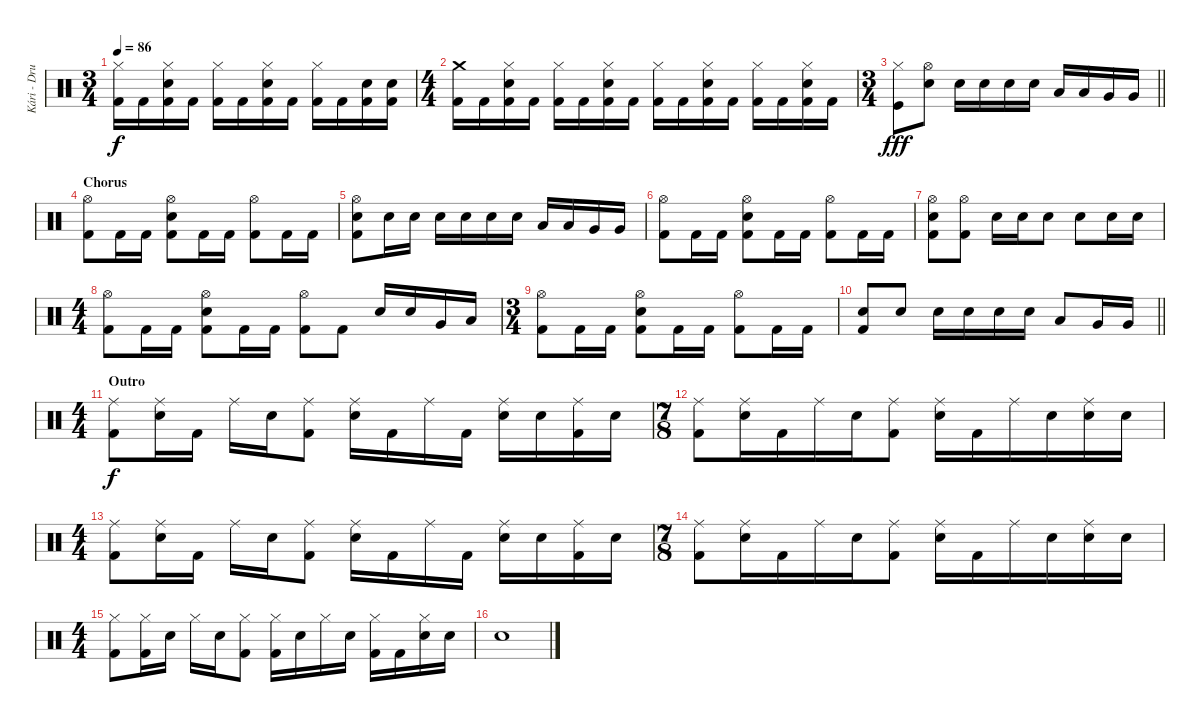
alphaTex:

\track ("Kári - Drums" "Kári - Dru") {instrument percussion}
\staff {score}
\articulation defaults
\ts (3 4)
\tempo 86
\clef neutral
\ks c
("Hi-Hat (closed)" "Kick (hit) 2").16{dy f} "Kick (hit) 2".16 ("Hi-Hat (closed)" "Electric Snare (hit)" "Kick (hit) 2").16 "Kick (hit) 2".16 ("Hi-Hat (closed)" "Kick (hit) 2").16 "Kick (hit) 2".16 ("Hi-Hat (closed)" "Electric Snare (hit)" "Kick (hit) 2").16 "Kick (hit) 2".16 ("Hi-Hat (closed)" "Kick (hit) 2").16 "Kick (hit) 2".16 ("Electric Snare (hit)" "Kick (hit) 2").16 ("Electric Snare (hit)" "Kick (hit) 2").16 |
\ts (4 4)
("Crash medium (hit)" "Kick (hit) 2").16 "Kick (hit) 2".16 ("Hi-Hat (closed)" "Electric Snare (hit)" "Kick (hit) 2").16 "Kick (hit) 2".16 ("Hi-Hat (closed)" "Kick (hit) 2").16 "Kick (hit) 2".16 ("Hi-Hat (closed)" "Electric Snare (hit)" "Kick (hit) 2").16 "Kick (hit) 2".16 ("Hi-Hat (closed)" "Kick (hit) 2").16 "Kick (hit) 2".16 ("Hi-Hat (closed)" "Electric Snare (hit)" "Kick (hit) 2").16 "Kick (hit) 2".16 ("Hi-Hat (closed)" "Kick (hit) 2").16 "Kick (hit) 2".16 ("Hi-Hat (closed)" "Electric Snare (hit)" "Kick (hit) 2").16 "Kick (hit) 2".16 |
\ts (3 4)
\barLineRight lightlight
("Hi-Hat (closed)" "Kick (hit)").8{dy fff} ("Hi-Hat (open)" "Electric Snare (hit)").8 "Electric Snare (hit)".16 "Electric Snare (hit)".16 "Electric Snare (hit)".16 "Electric Snare (hit)".16 "Low Tom (hit)".16 "Low Tom (hit)".16 "Very Low Tom (hit)".16 "Very Low Tom (hit)".16 |
\section ("" "Chorus")
("Hi-Hat (open)" "Kick (hit) 2").8 "Kick (hit) 2".16 "Kick (hit) 2".16 ("Hi-Hat (open)" "Electric Snare (hit)" "Kick (hit) 2").8 "Kick (hit) 2".16 "Kick (hit) 2".16 ("Hi-Hat (open)" "Kick (hit) 2").8 "Kick (hit) 2".16 "Kick (hit) 2".16 |
("Hi-Hat (open)" "Electric Snare (hit)" "Kick (hit) 2").8 "Electric Snare (hit)".16 "Electric Snare (hit)".16 "Electric Snare (hit)".16 "Electric Snare (hit)".16 "Electric Snare (hit)".16 "Electric Snare (hit)".16 "Low Tom (hit)".16 "Low Tom (hit)".16 "Very Low Tom (hit)".16 "Very Low Tom (hit)".16 |
("Hi-Hat (open)" "Kick (hit) 2").8 "Kick (hit) 2".16 "Kick (hit) 2".16 ("Hi-Hat (open)" "Electric Snare (hit)" "Kick (hit) 2").8 "Kick (hit) 2".16 "Kick (hit) 2".16 ("Hi-Hat (open)" "Kick (hit) 2").8 "Kick (hit) 2".16 "Kick (hit) 2".16 |
("Hi-Hat (open)" "Electric Snare (hit)" "Kick (hit) 2").8 ("Hi-Hat (open)" "Kick (hit) 2").8 "Electric Snare (hit)".16 "Electric Snare (hit)".16 "Electric Snare (hit)".8 "Electric Snare (hit)".8 "Electric Snare (hit)".16 "Electric Snare (hit)".16 |
\ts (4 4)
("Hi-Hat (open)" "Kick (hit) 2").8 "Kick (hit) 2".16 "Kick (hit) 2".16 ("Hi-Hat (open)" "Electric Snare (hit)" "Kick (hit) 2").8 "Kick (hit) 2".16 "Kick (hit) 2".16 ("Hi-Hat (open)" "Kick (hit) 2").8 "Kick (hit) 2".8 "Electric Snare (hit)".16 "Electric Snare (hit)".16 "Very Low Tom (hit)".16 "Low Floor Tom (hit)".16 |
\ts (3 4)
("Hi-Hat (open)" "Kick (hit) 2").8 "Kick (hit) 2".16 "Kick (hit) 2".16 ("Hi-Hat (open)" "Electric Snare (hit)" "Kick (hit) 2").8 "Kick (hit) 2".16 "Kick (hit) 2".16 ("Hi-Hat (open)" "Kick (hit) 2").8 "Kick (hit) 2".16 "Kick (hit) 2".16 |
\barLineRight lightlight
("Electric Snare (hit)" "Kick (hit) 2").8 "Electric Snare (hit)".8 "Electric Snare (hit)".16 "Electric Snare (hit)".16 "Electric Snare (hit)".16 "Electric Snare (hit)".16 "Low Tom (hit)".8 "Very Low Tom (hit)".16 "Very Low Tom (hit)".16 |
\ts (4 4)
\section ("" "Outro")
("Ride (middle)" "Kick (hit) 2").8{dy f} ("Ride (middle)" "Electric Snare (hit)").16 "Kick (hit) 2".16 "Ride (middle)".16 "Electric Snare (hit)".16 ("Ride (middle)" "Kick (hit) 2").8 ("Ride (middle)" "Electric Snare (hit)").16 "Kick (hit) 2".16 "Ride (middle)".16 "Kick (hit) 2".16 ("Ride (middle)" "Electric Snare (hit)").16 "Electric Snare (hit)".16 ("Ride (middle)" "Kick (hit) 2").16 "Electric Snare (hit)".16 |
\ts (7 8)
("Ride (middle)" "Kick (hit) 2").8{beam merge} ("Ride (middle)" "Electric Snare (hit)").16 "Kick (hit) 2".16 "Ride (middle)".16 "Electric Snare (hit)".16{beam merge} ("Ride (middle)" "Kick (hit) 2").8 ("Ride (middle)" "Electric Snare (hit)").16 "Kick (hit) 2".16{beam merge} "Ride (middle)".16 "Electric Snare (hit)".16{beam merge} ("Ride (middle)" "Electric Snare (hit)").16 "Electric Snare (hit)".16 |
\ts (4 4)
("Ride (middle)" "Kick (hit) 2").8 ("Ride (middle)" "Electric Snare (hit)").16 "Kick (hit) 2".16 "Ride (middle)".16 "Electric Snare (hit)".16 ("Ride (middle)" "Kick (hit) 2").8 ("Ride (middle)" "Electric Snare (hit)").16 "Kick (hit) 2".16 "Ride (middle)".16 "Kick (hit) 2".16 ("Ride (middle)" "Electric Snare (hit)").16 "Electric Snare (hit)".16 ("Ride (middle)" "Kick (hit) 2").16 "Electric Snare (hit)".16 |
\ts (7 8)
("Ride (middle)" "Kick (hit) 2").8{beam merge} ("Ride (middle)" "Electric Snare (hit)").16 "Kick (hit) 2".16 "Ride (middle)".16 "Electric Snare (hit)".16{beam merge} ("Ride (middle)" "Kick (hit) 2").8 ("Ride (middle)" "Electric Snare (hit)").16 "Kick (hit) 2".16{beam merge} "Ride (middle)".16 "Electric Snare (hit)".16{beam merge} ("Ride (middle)" "Electric Snare (hit)").16 "Electric Snare (hit)".16 |
\ts (4 4)
("Hi-Hat (closed)" "Kick (hit) 2").8 ("Hi-Hat (closed)" "Kick (hit) 2").16 "Electric Snare (hit)".16 "Hi-Hat (closed)".16 "Electric Snare (hit)".16 ("Hi-Hat (closed)" "Kick (hit) 2").8 ("Hi-Hat (closed)" "Kick (hit) 2").16 "Electric Snare (hit)".16 "Hi-Hat (closed)".16 "Electric Snare (hit)".16 ("Hi-Hat (closed)" "Kick (hit) 2").16 "Kick (hit) 2".16 ("Hi-Hat (closed)" "Electric Snare (hit)").16 "Electric Snare (hit)".16 |
"Electric Snare (hit)".1
